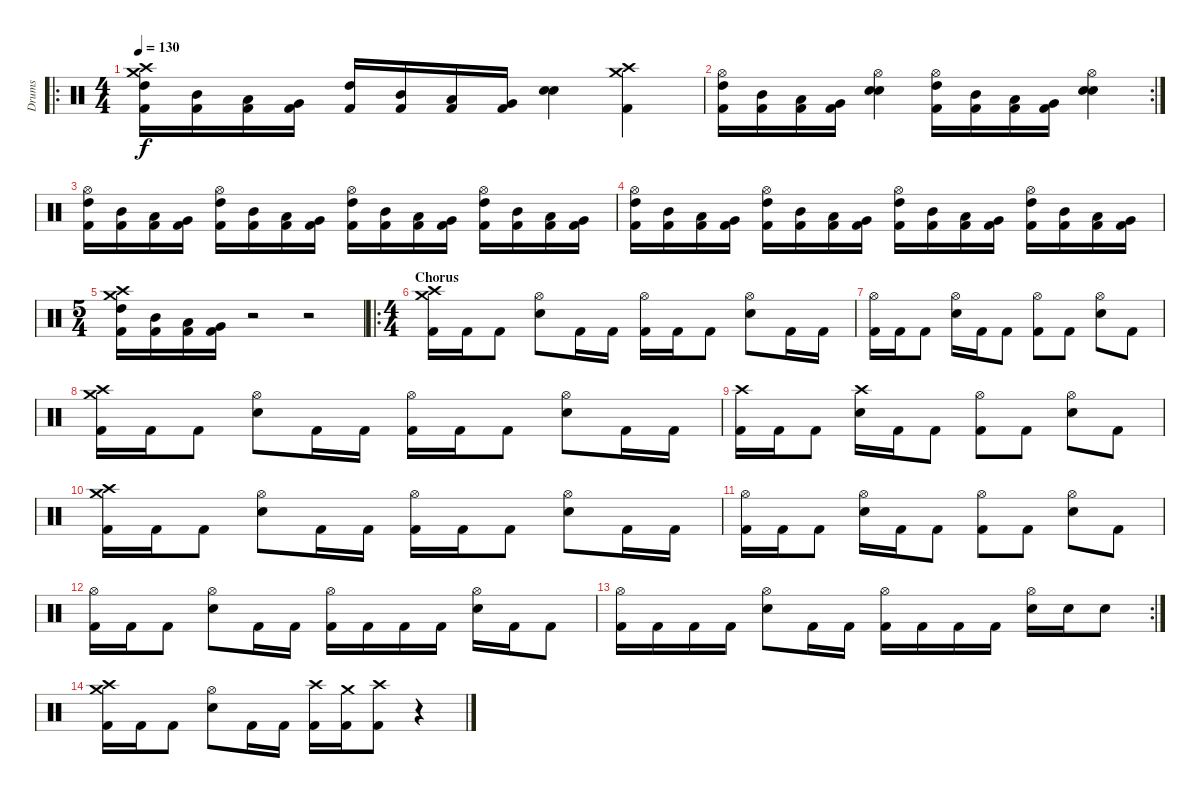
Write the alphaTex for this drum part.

\track ("Drums" "Drums") {instrument percussion}
\staff {score}
\articulation defaults
\ro
\ts (4 4)
\tempo 130
\clef neutral
\ks c
("Crash high (hit)" "Crash medium (hit)" "High Tom (hit)" "Kick (hit) 2").16{dy f} ("Mid Tom (hit)" "Kick (hit) 2").16 ("Low Tom (hit)" "Kick (hit) 2").16 ("Very Low Tom (hit)" "Kick (hit) 2").16 ("High Tom (hit)" "Kick (hit) 2").16 ("Mid Tom (hit)" "Kick (hit) 2").16 ("Low Tom (hit)" "Kick (hit) 2").16 ("Very Low Tom (hit)" "Kick (hit) 2").16 ("Electric Snare (hit)" "Electric Snare (hit)").4 ("Crash high (hit)" "Crash medium (hit)" "Kick (hit) 2").4 |
\rc 2
("High Tom (hit)" "Hi-Hat (open)" "Kick (hit) 2").16 ("Mid Tom (hit)" "Kick (hit) 2").16 ("Low Tom (hit)" "Kick (hit) 2").16 ("Very Low Tom (hit)" "Kick (hit) 2").16 ("Hi-Hat (open)" "Electric Snare (hit)" "Electric Snare (hit)").4 ("High Tom (hit)" "Hi-Hat (open)" "Kick (hit) 2").16 ("Mid Tom (hit)" "Kick (hit) 2").16 ("Low Tom (hit)" "Kick (hit) 2").16 ("Very Low Tom (hit)" "Kick (hit) 2").16 ("Hi-Hat (open)" "Electric Snare (hit)" "Electric Snare (hit)").4 |
("High Tom (hit)" "Hi-Hat (open)" "Kick (hit) 2").16 ("Mid Tom (hit)" "Kick (hit) 2").16 ("Low Tom (hit)" "Kick (hit) 2").16 ("Very Low Tom (hit)" "Kick (hit) 2").16 ("High Tom (hit)" "Hi-Hat (open)" "Kick (hit) 2").16 ("Mid Tom (hit)" "Kick (hit) 2").16 ("Low Tom (hit)" "Kick (hit) 2").16 ("Very Low Tom (hit)" "Kick (hit) 2").16 ("High Tom (hit)" "Hi-Hat (open)" "Kick (hit) 2").16 ("Mid Tom (hit)" "Kick (hit) 2").16 ("Low Tom (hit)" "Kick (hit) 2").16 ("Very Low Tom (hit)" "Kick (hit) 2").16 ("High Tom (hit)" "Hi-Hat (open)" "Kick (hit) 2").16 ("Mid Tom (hit)" "Kick (hit) 2").16 ("Low Tom (hit)" "Kick (hit) 2").16 ("Very Low Tom (hit)" "Kick (hit) 2").16 |
("High Tom (hit)" "Hi-Hat (open)" "Kick (hit) 2").16 ("Mid Tom (hit)" "Kick (hit) 2").16 ("Low Tom (hit)" "Kick (hit) 2").16 ("Very Low Tom (hit)" "Kick (hit) 2").16 ("High Tom (hit)" "Hi-Hat (open)" "Kick (hit) 2").16 ("Mid Tom (hit)" "Kick (hit) 2").16 ("Low Tom (hit)" "Kick (hit) 2").16 ("Very Low Tom (hit)" "Kick (hit) 2").16 ("High Tom (hit)" "Hi-Hat (open)" "Kick (hit) 2").16 ("Mid Tom (hit)" "Kick (hit) 2").16 ("Low Tom (hit)" "Kick (hit) 2").16 ("Very Low Tom (hit)" "Kick (hit) 2").16 ("High Tom (hit)" "Hi-Hat (open)" "Kick (hit) 2").16 ("Mid Tom (hit)" "Kick (hit) 2").16 ("Low Tom (hit)" "Kick (hit) 2").16 ("Very Low Tom (hit)" "Kick (hit) 2").16 |
\ts (5 4)
("Crash high (hit)" "Crash medium (hit)" "High Tom (hit)" "Kick (hit) 2").16 ("Mid Tom (hit)" "Kick (hit) 2").16 ("Low Tom (hit)" "Kick (hit) 2").16 ("Very Low Tom (hit)" "Kick (hit) 2").16 r.2 r.2 |
\ro
\ts (4 4)
\section ("" "Chorus")
("Crash high (hit)" "Crash medium (hit)" "Kick (hit) 2").16 "Kick (hit) 2".16 "Kick (hit) 2".8 ("Hi-Hat (open)" "Electric Snare (hit)").8 "Kick (hit) 2".16 "Kick (hit) 2".16 ("Hi-Hat (open)" "Kick (hit) 2").16 "Kick (hit) 2".16 "Kick (hit) 2".8 ("Hi-Hat (open)" "Electric Snare (hit)").8 "Kick (hit) 2".16 "Kick (hit) 2".16 |
("Hi-Hat (open)" "Kick (hit) 2").16 "Kick (hit) 2".16 "Kick (hit) 2".8 ("Hi-Hat (open)" "Electric Snare (hit)").16 "Kick (hit) 2".16 "Kick (hit) 2".8 ("Hi-Hat (open)" "Kick (hit) 2").8 "Kick (hit) 2".8 ("Hi-Hat (open)" "Electric Snare (hit)").8 "Kick (hit) 2".8 |
("Crash high (hit)" "Crash medium (hit)" "Kick (hit) 2").16 "Kick (hit) 2".16 "Kick (hit) 2".8 ("Hi-Hat (open)" "Electric Snare (hit)").8 "Kick (hit) 2".16 "Kick (hit) 2".16 ("Hi-Hat (open)" "Kick (hit) 2").16 "Kick (hit) 2".16 "Kick (hit) 2".8 ("Hi-Hat (open)" "Electric Snare (hit)").8 "Kick (hit) 2".16 "Kick (hit) 2".16 |
("Crash high (hit)" "Kick (hit) 2").16 "Kick (hit) 2".16 "Kick (hit) 2".8 ("Crash high (hit)" "Electric Snare (hit)").16 "Kick (hit) 2".16 "Kick (hit) 2".8 ("Hi-Hat (open)" "Kick (hit) 2").8 "Kick (hit) 2".8 ("Hi-Hat (open)" "Electric Snare (hit)").8 "Kick (hit) 2".8 |
("Crash high (hit)" "Crash medium (hit)" "Kick (hit) 2").16 "Kick (hit) 2".16 "Kick (hit) 2".8 ("Hi-Hat (open)" "Electric Snare (hit)").8 "Kick (hit) 2".16 "Kick (hit) 2".16 ("Hi-Hat (open)" "Kick (hit) 2").16 "Kick (hit) 2".16 "Kick (hit) 2".8 ("Hi-Hat (open)" "Electric Snare (hit)").8 "Kick (hit) 2".16 "Kick (hit) 2".16 |
("Hi-Hat (open)" "Kick (hit) 2").16 "Kick (hit) 2".16 "Kick (hit) 2".8 ("Hi-Hat (open)" "Electric Snare (hit)").16 "Kick (hit) 2".16 "Kick (hit) 2".8 ("Hi-Hat (open)" "Kick (hit) 2").8 "Kick (hit) 2".8 ("Hi-Hat (open)" "Electric Snare (hit)").8 "Kick (hit) 2".8 |
("Hi-Hat (open)" "Kick (hit) 2").16 "Kick (hit) 2".16 "Kick (hit) 2".8 ("Hi-Hat (open)" "Electric Snare (hit)").8 "Kick (hit) 2".16 "Kick (hit) 2".16 ("Hi-Hat (open)" "Kick (hit) 2").16 "Kick (hit) 2".16 "Kick (hit) 2".16 "Kick (hit) 2".16 ("Hi-Hat (open)" "Electric Snare (hit)").16 "Kick (hit) 2".16 "Kick (hit) 2".8 |
\rc 2
("Hi-Hat (open)" "Kick (hit) 2").16 "Kick (hit) 2".16 "Kick (hit) 2".16 "Kick (hit) 2".16 ("Hi-Hat (open)" "Electric Snare (hit)").8 "Kick (hit) 2".16 "Kick (hit) 2".16 ("Hi-Hat (open)" "Kick (hit) 2").16 "Kick (hit) 2".16 "Kick (hit) 2".16 "Kick (hit) 2".16 ("Hi-Hat (open)" "Electric Snare (hit)").16 "Electric Snare (hit)".16 "Electric Snare (hit)".8 |
("Crash high (hit)" "Crash medium (hit)" "Kick (hit) 2").16 "Kick (hit) 2".16 "Kick (hit) 2".8 ("Hi-Hat (open)" "Electric Snare (hit)").8 "Kick (hit) 2".16 "Kick (hit) 2".16 ("Crash high (hit)" "Kick (hit) 2").16 ("Crash medium (hit)" "Kick (hit) 2").16 ("Crash high (hit)" "Kick (hit) 2").8 r.4
